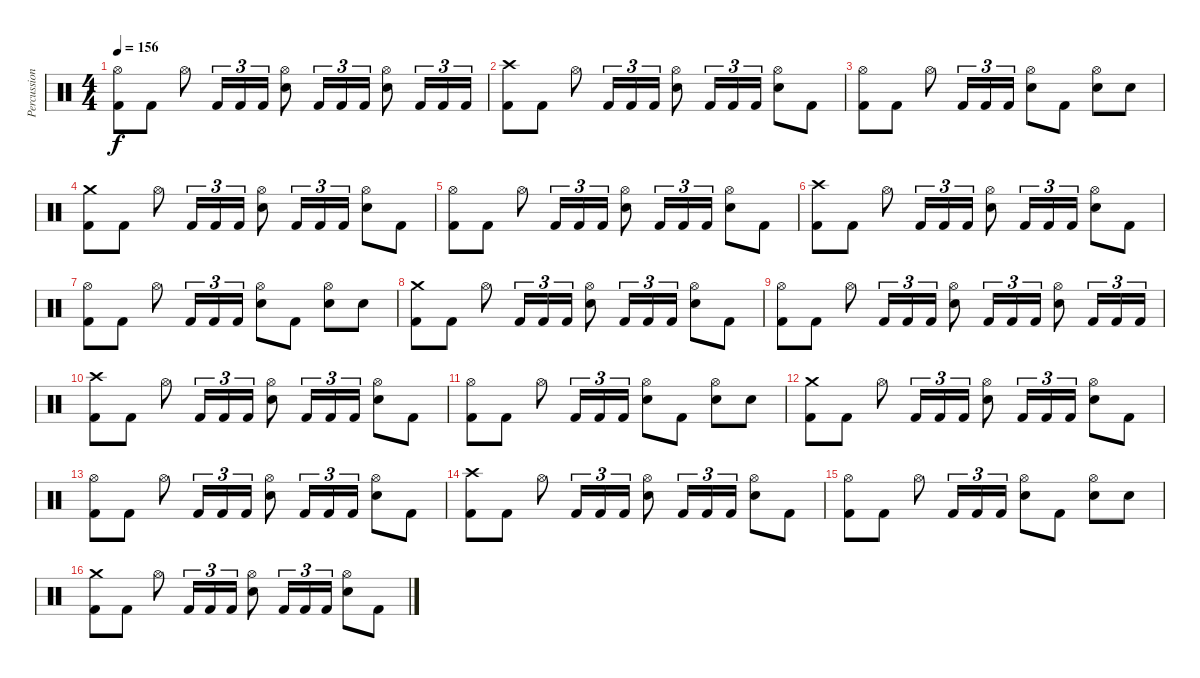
\track ("Percussion" "Percussion") {instrument percussion}
\staff {score}
\articulation defaults
\ts (4 4)
\tempo 156
\clef neutral
\ks c
("Hi-Hat (open)" "Kick (hit) 2").8{dy f} "Kick (hit) 2".8 "Hi-Hat (open)".8 "Kick (hit) 2".16{tu (3 2)} "Kick (hit) 2".16{tu (3 2)} "Kick (hit) 2".16{tu (3 2)} ("Hi-Hat (open)" "Snare (hit) 2").8 "Kick (hit) 2".16{tu (3 2)} "Kick (hit) 2".16{tu (3 2)} "Kick (hit) 2".16{tu (3 2)} ("Hi-Hat (open)" "Snare (hit) 2").8 "Kick (hit) 2".16{tu (3 2)} "Kick (hit) 2".16{tu (3 2)} "Kick (hit) 2".16{tu (3 2)} |
("Crash high (hit)" "Kick (hit) 2").8 "Kick (hit) 2".8 "Hi-Hat (open)".8 "Kick (hit) 2".16{tu (3 2)} "Kick (hit) 2".16{tu (3 2)} "Kick (hit) 2".16{tu (3 2)} ("Hi-Hat (open)" "Snare (hit) 2").8 "Kick (hit) 2".16{tu (3 2)} "Kick (hit) 2".16{tu (3 2)} "Kick (hit) 2".16{tu (3 2)} ("Hi-Hat (open)" "Snare (hit) 2").8 "Kick (hit) 2".8 |
("Hi-Hat (open)" "Kick (hit) 2").8 "Kick (hit) 2".8 "Hi-Hat (open)".8 "Kick (hit) 2".16{tu (3 2)} "Kick (hit) 2".16{tu (3 2)} "Kick (hit) 2".16{tu (3 2)} ("Hi-Hat (open)" "Snare (hit) 2").8 "Kick (hit) 2".8 ("Hi-Hat (open)" "Snare (hit) 2").8 "Snare (hit) 2".8 |
("Crash medium (hit)" "Kick (hit) 2").8 "Kick (hit) 2".8 "Hi-Hat (open)".8 "Kick (hit) 2".16{tu (3 2)} "Kick (hit) 2".16{tu (3 2)} "Kick (hit) 2".16{tu (3 2)} ("Hi-Hat (open)" "Snare (hit) 2").8 "Kick (hit) 2".16{tu (3 2)} "Kick (hit) 2".16{tu (3 2)} "Kick (hit) 2".16{tu (3 2)} ("Hi-Hat (open)" "Snare (hit) 2").8 "Kick (hit) 2".8 |
("Hi-Hat (open)" "Kick (hit) 2").8 "Kick (hit) 2".8 "Hi-Hat (open)".8 "Kick (hit) 2".16{tu (3 2)} "Kick (hit) 2".16{tu (3 2)} "Kick (hit) 2".16{tu (3 2)} ("Hi-Hat (open)" "Snare (hit) 2").8 "Kick (hit) 2".16{tu (3 2)} "Kick (hit) 2".16{tu (3 2)} "Kick (hit) 2".16{tu (3 2)} ("Hi-Hat (open)" "Snare (hit) 2").8 "Kick (hit) 2".8 |
("Crash high (hit)" "Kick (hit) 2").8 "Kick (hit) 2".8 "Hi-Hat (open)".8 "Kick (hit) 2".16{tu (3 2)} "Kick (hit) 2".16{tu (3 2)} "Kick (hit) 2".16{tu (3 2)} ("Hi-Hat (open)" "Snare (hit) 2").8 "Kick (hit) 2".16{tu (3 2)} "Kick (hit) 2".16{tu (3 2)} "Kick (hit) 2".16{tu (3 2)} ("Hi-Hat (open)" "Snare (hit) 2").8 "Kick (hit) 2".8 |
("Hi-Hat (open)" "Kick (hit) 2").8 "Kick (hit) 2".8 "Hi-Hat (open)".8 "Kick (hit) 2".16{tu (3 2)} "Kick (hit) 2".16{tu (3 2)} "Kick (hit) 2".16{tu (3 2)} ("Hi-Hat (open)" "Snare (hit) 2").8 "Kick (hit) 2".8 ("Hi-Hat (open)" "Snare (hit) 2").8 "Snare (hit) 2".8 |
("Crash medium (hit)" "Kick (hit) 2").8 "Kick (hit) 2".8 "Hi-Hat (open)".8 "Kick (hit) 2".16{tu (3 2)} "Kick (hit) 2".16{tu (3 2)} "Kick (hit) 2".16{tu (3 2)} ("Hi-Hat (open)" "Snare (hit) 2").8 "Kick (hit) 2".16{tu (3 2)} "Kick (hit) 2".16{tu (3 2)} "Kick (hit) 2".16{tu (3 2)} ("Hi-Hat (open)" "Snare (hit) 2").8 "Kick (hit) 2".8 |
("Hi-Hat (open)" "Kick (hit) 2").8 "Kick (hit) 2".8 "Hi-Hat (open)".8 "Kick (hit) 2".16{tu (3 2)} "Kick (hit) 2".16{tu (3 2)} "Kick (hit) 2".16{tu (3 2)} ("Hi-Hat (open)" "Snare (hit) 2").8 "Kick (hit) 2".16{tu (3 2)} "Kick (hit) 2".16{tu (3 2)} "Kick (hit) 2".16{tu (3 2)} ("Hi-Hat (open)" "Snare (hit) 2").8 "Kick (hit) 2".16{tu (3 2)} "Kick (hit) 2".16{tu (3 2)} "Kick (hit) 2".16{tu (3 2)} |
("Crash high (hit)" "Kick (hit) 2").8 "Kick (hit) 2".8 "Hi-Hat (open)".8 "Kick (hit) 2".16{tu (3 2)} "Kick (hit) 2".16{tu (3 2)} "Kick (hit) 2".16{tu (3 2)} ("Hi-Hat (open)" "Snare (hit) 2").8 "Kick (hit) 2".16{tu (3 2)} "Kick (hit) 2".16{tu (3 2)} "Kick (hit) 2".16{tu (3 2)} ("Hi-Hat (open)" "Snare (hit) 2").8 "Kick (hit) 2".8 |
("Hi-Hat (open)" "Kick (hit) 2").8 "Kick (hit) 2".8 "Hi-Hat (open)".8 "Kick (hit) 2".16{tu (3 2)} "Kick (hit) 2".16{tu (3 2)} "Kick (hit) 2".16{tu (3 2)} ("Hi-Hat (open)" "Snare (hit) 2").8 "Kick (hit) 2".8 ("Hi-Hat (open)" "Snare (hit) 2").8 "Snare (hit) 2".8 |
("Crash medium (hit)" "Kick (hit) 2").8 "Kick (hit) 2".8 "Hi-Hat (open)".8 "Kick (hit) 2".16{tu (3 2)} "Kick (hit) 2".16{tu (3 2)} "Kick (hit) 2".16{tu (3 2)} ("Hi-Hat (open)" "Snare (hit) 2").8 "Kick (hit) 2".16{tu (3 2)} "Kick (hit) 2".16{tu (3 2)} "Kick (hit) 2".16{tu (3 2)} ("Hi-Hat (open)" "Snare (hit) 2").8 "Kick (hit) 2".8 |
("Hi-Hat (open)" "Kick (hit) 2").8 "Kick (hit) 2".8 "Hi-Hat (open)".8 "Kick (hit) 2".16{tu (3 2)} "Kick (hit) 2".16{tu (3 2)} "Kick (hit) 2".16{tu (3 2)} ("Hi-Hat (open)" "Snare (hit) 2").8 "Kick (hit) 2".16{tu (3 2)} "Kick (hit) 2".16{tu (3 2)} "Kick (hit) 2".16{tu (3 2)} ("Hi-Hat (open)" "Snare (hit) 2").8 "Kick (hit) 2".8 |
("Crash high (hit)" "Kick (hit) 2").8 "Kick (hit) 2".8 "Hi-Hat (open)".8 "Kick (hit) 2".16{tu (3 2)} "Kick (hit) 2".16{tu (3 2)} "Kick (hit) 2".16{tu (3 2)} ("Hi-Hat (open)" "Snare (hit) 2").8 "Kick (hit) 2".16{tu (3 2)} "Kick (hit) 2".16{tu (3 2)} "Kick (hit) 2".16{tu (3 2)} ("Hi-Hat (open)" "Snare (hit) 2").8 "Kick (hit) 2".8 |
("Hi-Hat (open)" "Kick (hit) 2").8 "Kick (hit) 2".8 "Hi-Hat (open)".8 "Kick (hit) 2".16{tu (3 2)} "Kick (hit) 2".16{tu (3 2)} "Kick (hit) 2".16{tu (3 2)} ("Hi-Hat (open)" "Snare (hit) 2").8 "Kick (hit) 2".8 ("Hi-Hat (open)" "Snare (hit) 2").8 "Snare (hit) 2".8 |
("Crash medium (hit)" "Kick (hit) 2").8 "Kick (hit) 2".8 "Hi-Hat (open)".8 "Kick (hit) 2".16{tu (3 2)} "Kick (hit) 2".16{tu (3 2)} "Kick (hit) 2".16{tu (3 2)} ("Hi-Hat (open)" "Snare (hit) 2").8 "Kick (hit) 2".16{tu (3 2)} "Kick (hit) 2".16{tu (3 2)} "Kick (hit) 2".16{tu (3 2)} ("Hi-Hat (open)" "Snare (hit) 2").8 "Kick (hit) 2".8
